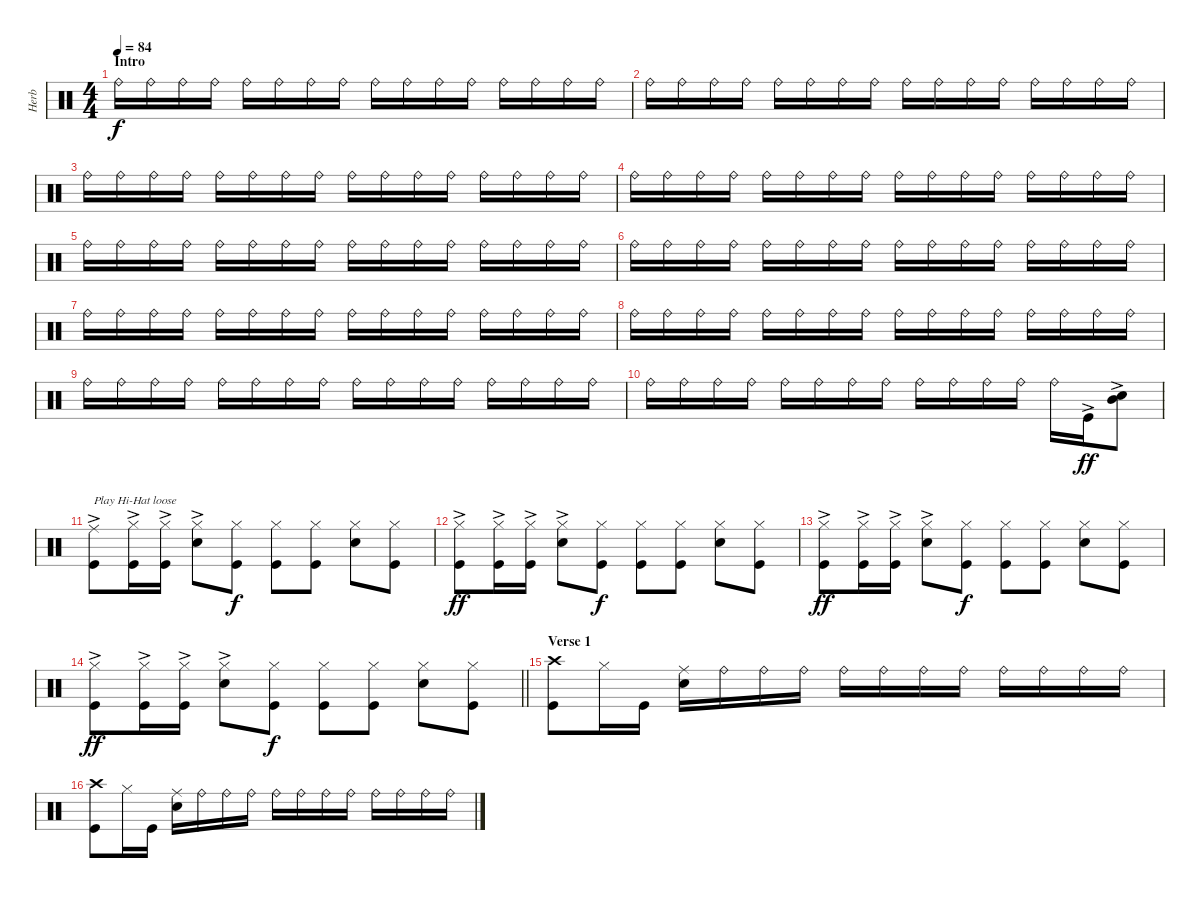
\track ("Herb" "Herb") {instrument percussion}
\staff {score}
\articulation defaults
\ts (4 4)
\section ("" "Intro")
\tempo 84
\clef neutral
\ks c "Ride (bell)".16{dy f} "Ride (bell)".16 "Ride (bell)".16 "Ride (bell)".16 "Ride (bell)".16 "Ride (bell)".16 "Ride (bell)".16 "Ride (bell)".16 "Ride (bell)".16 "Ride (bell)".16 "Ride (bell)".16 "Ride (bell)".16 "Ride (bell)".16 "Ride (bell)".16 "Ride (bell)".16 "Ride (bell)".16
|
"Ride (bell)".16 "Ride (bell)".16 "Ride (bell)".16 "Ride (bell)".16 "Ride (bell)".16 "Ride (bell)".16 "Ride (bell)".16 "Ride (bell)".16 "Ride (bell)".16 "Ride (bell)".16 "Ride (bell)".16 "Ride (bell)".16 "Ride (bell)".16 "Ride (bell)".16 "Ride (bell)".16 "Ride (bell)".16 |
"Ride (bell)".16 "Ride (bell)".16 "Ride (bell)".16 "Ride (bell)".16 "Ride (bell)".16 "Ride (bell)".16 "Ride (bell)".16 "Ride (bell)".16 "Ride (bell)".16 "Ride (bell)".16 "Ride (bell)".16 "Ride (bell)".16 "Ride (bell)".16 "Ride (bell)".16 "Ride (bell)".16 "Ride (bell)".16 |
"Ride (bell)".16 "Ride (bell)".16 "Ride (bell)".16 "Ride (bell)".16 "Ride (bell)".16 "Ride (bell)".16 "Ride (bell)".16 "Ride (bell)".16 "Ride (bell)".16 "Ride (bell)".16 "Ride (bell)".16 "Ride (bell)".16 "Ride (bell)".16 "Ride (bell)".16 "Ride (bell)".16 "Ride (bell)".16 |
"Ride (bell)".16 "Ride (bell)".16 "Ride (bell)".16 "Ride (bell)".16 "Ride (bell)".16 "Ride (bell)".16 "Ride (bell)".16 "Ride (bell)".16 "Ride (bell)".16 "Ride (bell)".16 "Ride (bell)".16 "Ride (bell)".16 "Ride (bell)".16 "Ride (bell)".16 "Ride (bell)".16 "Ride (bell)".16 |
"Ride (bell)".16 "Ride (bell)".16 "Ride (bell)".16 "Ride (bell)".16 "Ride (bell)".16 "Ride (bell)".16 "Ride (bell)".16 "Ride (bell)".16 "Ride (bell)".16 "Ride (bell)".16 "Ride (bell)".16 "Ride (bell)".16 "Ride (bell)".16 "Ride (bell)".16 "Ride (bell)".16 "Ride (bell)".16 |
"Ride (bell)".16 "Ride (bell)".16 "Ride (bell)".16 "Ride (bell)".16 "Ride (bell)".16 "Ride (bell)".16 "Ride (bell)".16 "Ride (bell)".16 "Ride (bell)".16 "Ride (bell)".16 "Ride (bell)".16 "Ride (bell)".16 "Ride (bell)".16 "Ride (bell)".16 "Ride (bell)".16 "Ride (bell)".16 |
"Ride (bell)".16 "Ride (bell)".16 "Ride (bell)".16 "Ride (bell)".16 "Ride (bell)".16 "Ride (bell)".16 "Ride (bell)".16 "Ride (bell)".16 "Ride (bell)".16 "Ride (bell)".16 "Ride (bell)".16 "Ride (bell)".16 "Ride (bell)".16 "Ride (bell)".16 "Ride (bell)".16 "Ride (bell)".16 |
"Ride (bell)".16 "Ride (bell)".16 "Ride (bell)".16 "Ride (bell)".16 "Ride (bell)".16 "Ride (bell)".16 "Ride (bell)".16 "Ride (bell)".16 "Ride (bell)".16 "Ride (bell)".16 "Ride (bell)".16 "Ride (bell)".16 "Ride (bell)".16 "Ride (bell)".16 "Ride (bell)".16 "Ride (bell)".16 |
"Ride (bell)".16 "Ride (bell)".16 "Ride (bell)".16 "Ride (bell)".16 "Ride (bell)".16 "Ride (bell)".16 "Ride (bell)".16 "Ride (bell)".16 "Ride (bell)".16 "Ride (bell)".16 "Ride (bell)".16 "Ride (bell)".16 "Ride (bell)".16 "Kick (hit)"{ac}.16{dy ff} ("Snare (hit) 2"{ac} "Mid Tom (hit)"{ac}).8 |
("Ride (middle)"{ac} "Kick (hit)").8{txt "Play Hi-Hat loose"} ("Hi-Hat (closed)"{ac} "Kick (hit)").16 ("Hi-Hat (closed)"{ac} "Kick (hit)").16 ("Hi-Hat (closed)"{ac} "Snare (hit) 2"{ac}).8 ("Hi-Hat (closed)" "Kick (hit)").8{dy f} ("Hi-Hat (closed)" "Kick (hit)").8 ("Hi-Hat (closed)" "Kick (hit)").8 ("Hi-Hat (closed)" "Snare (hit) 2").8 ("Hi-Hat (closed)" "Kick (hit)").8 |
("Hi-Hat (closed)"{ac} "Kick (hit)").8{dy ff} ("Hi-Hat (closed)"{ac} "Kick (hit)").16 ("Hi-Hat (closed)"{ac} "Kick (hit)").16 ("Hi-Hat (closed)"{ac} "Snare (hit) 2"{ac}).8 ("Hi-Hat (closed)" "Kick (hit)").8{dy f} ("Hi-Hat (closed)" "Kick (hit)").8 ("Hi-Hat (closed)" "Kick (hit)").8 ("Hi-Hat (closed)" "Snare (hit) 2").8 ("Hi-Hat (closed)" "Kick (hit)").8 |
("Hi-Hat (closed)"{ac} "Kick (hit)").8{dy ff} ("Hi-Hat (closed)"{ac} "Kick (hit)").16 ("Hi-Hat (closed)"{ac} "Kick (hit)").16 ("Hi-Hat (closed)"{ac} "Snare (hit) 2"{ac}).8 ("Hi-Hat (closed)" "Kick (hit)").8{dy f} ("Hi-Hat (closed)" "Kick (hit)").8 ("Hi-Hat (closed)" "Kick (hit)").8 ("Hi-Hat (closed)" "Snare (hit) 2").8 ("Hi-Hat (closed)" "Kick (hit)").8 |
\barLineRight lightlight
("Hi-Hat (closed)"{ac} "Kick (hit)").8{dy ff} ("Hi-Hat (closed)"{ac} "Kick (hit)").16 ("Hi-Hat (closed)"{ac} "Kick (hit)").16 ("Hi-Hat (closed)"{ac} "Snare (hit) 2"{ac}).8 ("Hi-Hat (closed)" "Kick (hit)").8{dy f} ("Hi-Hat (closed)" "Kick (hit)").8 ("Hi-Hat (closed)" "Kick (hit)").8 ("Hi-Hat (closed)" "Snare (hit) 2").8 ("Hi-Hat (closed)" "Kick (hit)").8 |
\section ("" "Verse 1")
("Crash high (hit)" "Kick (hit)").8 "Hi-Hat (closed)".16 "Kick (hit)".16 ("Ride (middle)" "Snare (hit) 2").16 "Ride (bell)".16 "Ride (bell)".16 "Ride (bell)".16 "Ride (bell)".16 "Ride (bell)".16 "Ride (bell)".16 "Ride (bell)".16 "Ride (bell)".16 "Ride (bell)".16 "Ride (bell)".16 "Ride (bell)".16 |
("Crash high (hit)" "Kick (hit)").8 "Hi-Hat (closed)".16 "Kick (hit)".16 ("Ride (middle)" "Snare (hit) 2").16 "Ride (bell)".16 "Ride (bell)".16 "Ride (bell)".16 "Ride (bell)".16 "Ride (bell)".16 "Ride (bell)".16 "Ride (bell)".16 "Ride (bell)".16 "Ride (bell)".16 "Ride (bell)".16 "Ride (bell)".16
